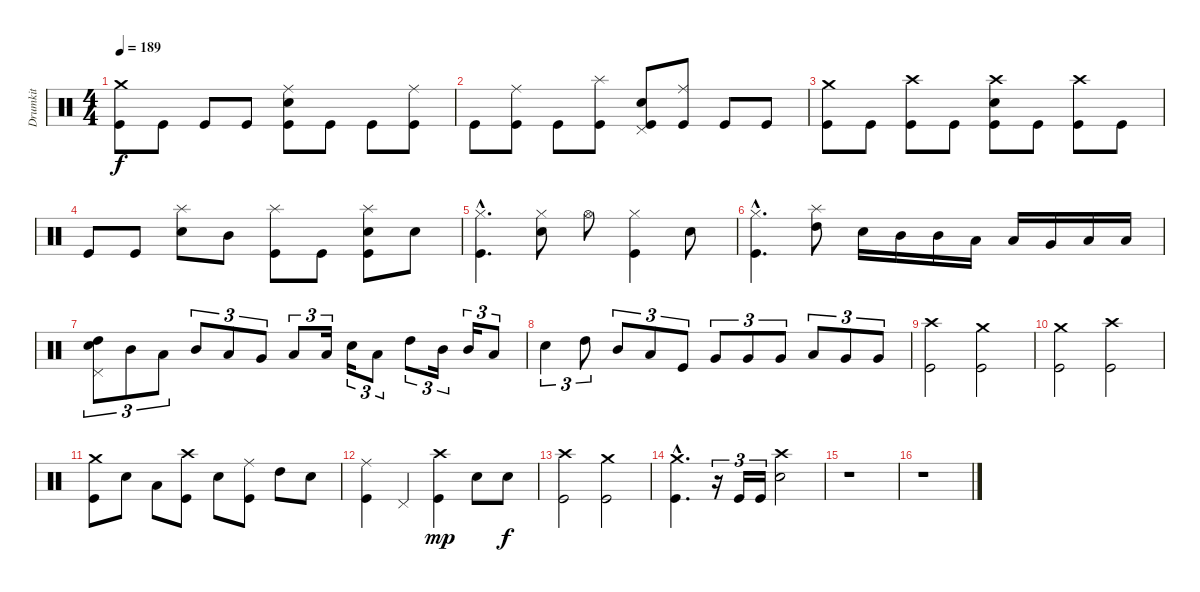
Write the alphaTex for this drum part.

\track ("Drumkit" "Drumkit") {instrument percussion}
\staff {score}
\articulation defaults
\ts (4 4)
\tempo 189
\clef neutral
\ks c
("Kick (hit)" "Crash medium (hit)").8{dy f} "Kick (hit)".8 "Kick (hit)".8 "Kick (hit)".8 ("Kick (hit)" "Snare (hit) 2" "Ride (middle)").8 "Kick (hit)".8 "Kick (hit)".8 ("Kick (hit)" "Ride (middle)").8 |
"Kick (hit)".8 ("Kick (hit)" "Ride (middle)").8 "Kick (hit)".8 ("Kick (hit)" "Splash (hit)").8 ("Kick (hit)" "Snare (hit) 2" "Pedal Hi-Hat (hit)").8 ("Kick (hit)" "Ride (middle)").8 "Kick (hit)".8 "Kick (hit)".8 |
("Kick (hit)" "Crash medium (hit)").8 "Kick (hit)".8 ("Kick (hit)" "Crash high (hit)").8 "Kick (hit)".8 ("Kick (hit)" "Snare (hit) 2" "Crash high (hit)").8 "Kick (hit)".8 ("Kick (hit)" "Crash high (hit)").8 "Kick (hit)".8 |
"Kick (hit)".8 "Kick (hit)".8 ("Snare (hit) 2" "Splash (hit)").8 "Mid Tom (hit)".8 ("Kick (hit)" "Splash (hit)").8 "Kick (hit)".8 ("Kick (hit)" "Snare (hit) 2" "Splash (hit)").8 "Snare (hit) 2".8 |
("Kick (hit)"{hac} "Hi-Hat (closed)"{hac}).4{d} ("Snare (hit) 2" "Hi-Hat (closed)").8 "Hi-Hat (open)".8 ("Hi-Hat (closed)" "Kick (hit)").4 "Snare (hit) 2".8 |
("Kick (hit)"{hac} "Hi-Hat (closed)"{hac}).4{d} ("Splash (hit)" "High Tom (hit)").8 "Snare (hit) 2".16 "Mid Tom (hit)".16 "Mid Tom (hit)".16 "Low Tom (hit)".16 "Low Tom (hit)".16 "Very Low Tom (hit)".16 "Low Tom (hit)".16 "Low Tom (hit)".16 |
("Snare (hit) 2" "High Tom (hit)" "Pedal Hi-Hat (hit)").8{tu (3 2)} "Mid Tom (hit)".8{tu (3 2)} "Low Tom (hit)".8{tu (3 2)} "Mid Tom (hit)".8{tu (3 2)} "Low Tom (hit)".8{tu (3 2)} "Very Low Tom (hit)".8{tu (3 2)} "Low Floor Tom (hit)".8{tu (3 2)} "Low Tom (hit)".16{tu (3 2)} "Snare (hit) 2".16{tu (3 2)} "Low Tom (hit)".8{tu (3 2)} "High Tom (hit)".8{tu (3 2)} "Mid Tom (hit)".16{tu (3 2)} "Mid Tom (hit)".16{tu (3 2)} "Low Tom (hit)".8{tu (3 2)} |
"Snare (hit) 2".4{tu (3 2)} "High Tom (hit)".8{tu (3 2)} "Mid Tom (hit)".8{tu (3 2)} "Low Tom (hit)".8{tu (3 2)} "Kick (hit)".8{tu (3 2)} "Very Low Tom (hit)".8{tu (3 2)} "Very Low Tom (hit)".8{tu (3 2)} "Very Low Tom (hit)".8{tu (3 2)} "Low Floor Tom (hit)".8{tu (3 2)} "Very Low Tom (hit)".8{tu (3 2)} "Very Low Tom (hit)".8{tu (3 2)} |
("Kick (hit)" "Crash high (hit)").2 ("Crash medium (hit)" "Kick (hit)").2 |
("Kick (hit)" "Crash medium (hit)").2 ("Crash high (hit)" "Kick (hit)").2 |
("Kick (hit)" "Crash medium (hit)").8 "Snare (hit) 2".8 "Low Tom (hit)".8 ("Crash high (hit)" "Kick (hit)").8 "Snare (hit) 2".8 ("Kick (hit)" "Ride (middle)").8 "High Tom (hit)".8 "Snare (hit) 2".8 |
("Kick (hit)" "Ride (middle)").4 "Pedal Hi-Hat (hit)".4 ("Kick (hit)" "Crash high (hit)").4{dy mp} "Snare (hit) 2".8 "Snare (hit) 2".8{dy f} |
("Kick (hit)" "Crash high (hit)").2 ("Crash medium (hit)" "Kick (hit)").2 |
("Kick (hit)"{hac} "Crash medium (hit)"{hac}).4{d} r.16{tu (3 2)} "Kick (hit)".16{tu (3 2)} "Kick (hit)".16{tu (3 2)} ("Crash high (hit)" "Snare (hit) 2").2 |
r.1 |
r.1
